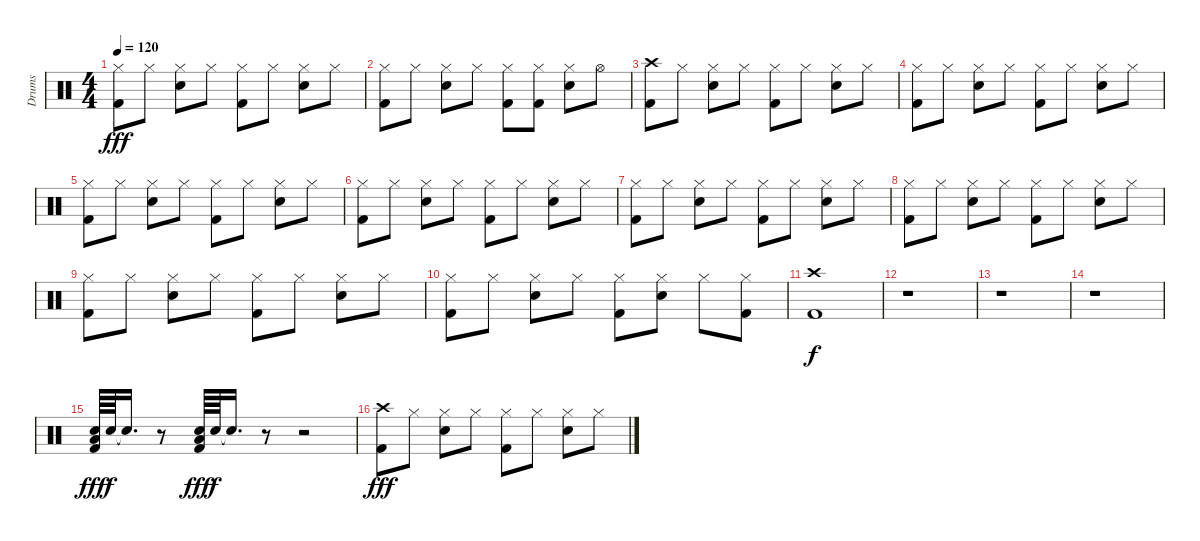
\track ("Drums" "Drums") {instrument percussion}
\staff {score}
\articulation defaults
\ts (4 4)
\tempo 120
\clef neutral
\ks c
("Hi-Hat (closed)" "Kick (hit) 2").8{dy fff} "Hi-Hat (closed)".8 ("Hi-Hat (closed)" "Snare (hit) 2").8 "Hi-Hat (closed)".8 ("Hi-Hat (closed)" "Kick (hit) 2").8 "Hi-Hat (closed)".8 ("Hi-Hat (closed)" "Snare (hit) 2").8 "Hi-Hat (closed)".8 |
("Hi-Hat (closed)" "Kick (hit) 2").8 "Hi-Hat (closed)".8 ("Hi-Hat (closed)" "Snare (hit) 2").8 "Hi-Hat (closed)".8 ("Hi-Hat (closed)" "Kick (hit) 2").8 ("Hi-Hat (closed)" "Kick (hit) 2").8 ("Hi-Hat (closed)" "Snare (hit) 2").8 "Hi-Hat (open)".8 |
("Crash high (hit)" "Kick (hit) 2").8 "Hi-Hat (closed)".8 ("Hi-Hat (closed)" "Snare (hit) 2").8 "Hi-Hat (closed)".8 ("Hi-Hat (closed)" "Kick (hit) 2").8 "Hi-Hat (closed)".8 ("Hi-Hat (closed)" "Snare (hit) 2").8 "Hi-Hat (closed)".8 |
("Hi-Hat (closed)" "Kick (hit) 2").8 "Hi-Hat (closed)".8 ("Hi-Hat (closed)" "Snare (hit) 2").8 "Hi-Hat (closed)".8 ("Hi-Hat (closed)" "Kick (hit) 2").8 "Hi-Hat (closed)".8 ("Hi-Hat (closed)" "Snare (hit) 2").8 "Hi-Hat (closed)".8 |
("Hi-Hat (closed)" "Kick (hit) 2").8 "Hi-Hat (closed)".8 ("Hi-Hat (closed)" "Snare (hit) 2").8 "Hi-Hat (closed)".8 ("Hi-Hat (closed)" "Kick (hit) 2").8 "Hi-Hat (closed)".8 ("Hi-Hat (closed)" "Snare (hit) 2").8 "Hi-Hat (closed)".8 |
("Hi-Hat (closed)" "Kick (hit) 2").8 "Hi-Hat (closed)".8 ("Hi-Hat (closed)" "Snare (hit) 2").8 "Hi-Hat (closed)".8 ("Hi-Hat (closed)" "Kick (hit) 2").8 "Hi-Hat (closed)".8 ("Hi-Hat (closed)" "Snare (hit) 2").8 "Hi-Hat (closed)".8 |
("Hi-Hat (closed)" "Kick (hit) 2").8 "Hi-Hat (closed)".8 ("Hi-Hat (closed)" "Snare (hit) 2").8 "Hi-Hat (closed)".8 ("Hi-Hat (closed)" "Kick (hit) 2").8 "Hi-Hat (closed)".8 ("Hi-Hat (closed)" "Snare (hit) 2").8 "Hi-Hat (closed)".8 |
("Hi-Hat (closed)" "Kick (hit) 2").8 "Hi-Hat (closed)".8 ("Hi-Hat (closed)" "Snare (hit) 2").8 "Hi-Hat (closed)".8 ("Hi-Hat (closed)" "Kick (hit) 2").8 "Hi-Hat (closed)".8 ("Hi-Hat (closed)" "Snare (hit) 2").8 "Hi-Hat (closed)".8 |
("Hi-Hat (closed)" "Kick (hit) 2").8 "Hi-Hat (closed)".8 ("Hi-Hat (closed)" "Snare (hit) 2").8 "Hi-Hat (closed)".8 ("Hi-Hat (closed)" "Kick (hit) 2").8 "Hi-Hat (closed)".8 ("Hi-Hat (closed)" "Snare (hit) 2").8 "Hi-Hat (closed)".8 |
("Hi-Hat (closed)" "Kick (hit) 2").8 "Hi-Hat (closed)".8 ("Hi-Hat (closed)" "Snare (hit) 2").8 "Hi-Hat (closed)".8 ("Hi-Hat (closed)" "Kick (hit) 2").8 ("Hi-Hat (closed)" "Snare (hit) 2").8 "Hi-Hat (closed)".8 ("Hi-Hat (closed)" "Kick (hit) 2").8 |
("Crash high (hit)" "Kick (hit) 2").1{dy f} |
r.1 |
r.1 |
r.1 |
("Snare (hit) 2" "Low Floor Tom (hit)" "Kick (hit) 2").64{dy fff} "Snare (hit) 2".64{dy f} "Snare (hit)"{t}.16{d} r.8 ("Snare (hit) 2" "Low Floor Tom (hit)" "Kick (hit) 2").64{dy fff} "Snare (hit) 2".64{dy f} "Snare (hit)"{t}.16{d} r.8 r.2 |
("Crash high (hit)" "Kick (hit) 2").8{dy fff} "Hi-Hat (closed)".8 ("Hi-Hat (closed)" "Snare (hit) 2").8 "Hi-Hat (closed)".8 ("Hi-Hat (closed)" "Kick (hit) 2").8 "Hi-Hat (closed)".8 ("Hi-Hat (closed)" "Snare (hit) 2").8 "Hi-Hat (closed)".8
